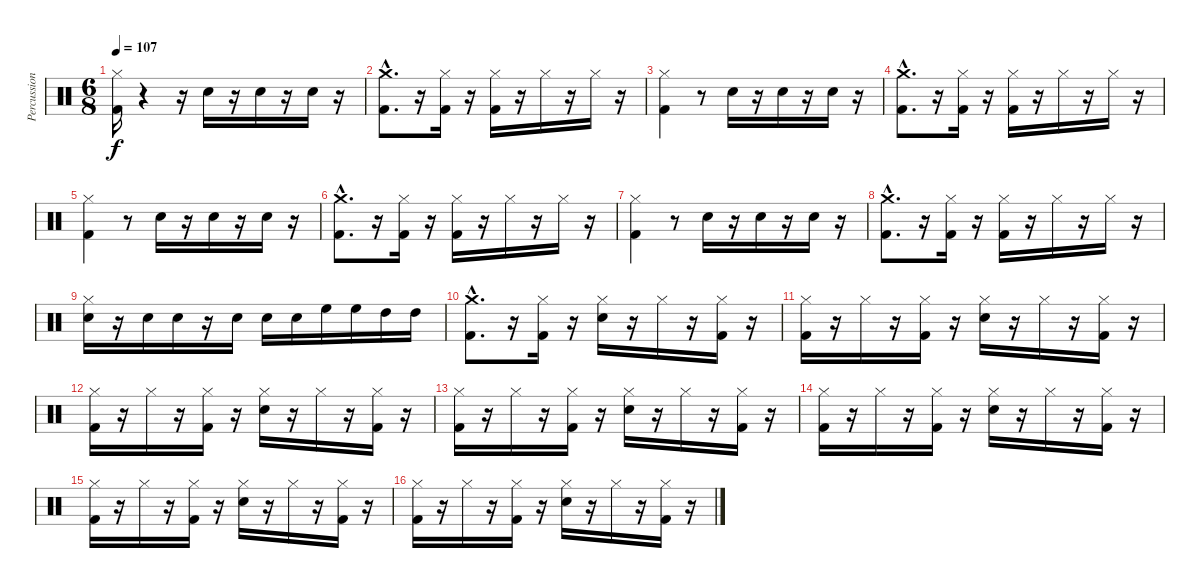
\track ("Percussions" "Percussion") {instrument percussion}
\staff {score}
\articulation defaults
\ts (6 8)
\tempo 107
\clef neutral
\ks c
("Kick (hit) 2" "Hi-Hat (closed)").16{dy f} r.4 r.16 "Snare (hit) 2".16 r.16 "Snare (hit) 2".16 r.16 "Snare (hit) 2".16 r.16 |
("Kick (hit) 2"{hac} "Crash medium (hit)"{hac}).8{d} r.16 ("Kick (hit) 2" "Hi-Hat (closed)").16 r.16 ("Kick (hit) 2" "Hi-Hat (closed)").16 r.16 "Hi-Hat (closed)".16 r.16 "Hi-Hat (closed)".16 r.16 |
("Kick (hit) 2" "Hi-Hat (closed)").4 r.8 "Snare (hit) 2".16 r.16 "Snare (hit) 2".16 r.16 "Snare (hit) 2".16 r.16 |
("Kick (hit) 2"{hac} "Crash medium (hit)"{hac}).8{d} r.16 ("Kick (hit) 2" "Hi-Hat (closed)").16 r.16 ("Kick (hit) 2" "Hi-Hat (closed)").16 r.16 "Hi-Hat (closed)".16 r.16 "Hi-Hat (closed)".16 r.16 |
("Kick (hit) 2" "Hi-Hat (closed)").4 r.8 "Snare (hit) 2".16 r.16 "Snare (hit) 2".16 r.16 "Snare (hit) 2".16 r.16 |
("Kick (hit) 2"{hac} "Crash medium (hit)"{hac}).8{d} r.16 ("Kick (hit) 2" "Hi-Hat (closed)").16 r.16 ("Kick (hit) 2" "Hi-Hat (closed)").16 r.16 "Hi-Hat (closed)".16 r.16 "Hi-Hat (closed)".16 r.16 |
("Kick (hit) 2" "Hi-Hat (closed)").4 r.8 "Snare (hit) 2".16 r.16 "Snare (hit) 2".16 r.16 "Snare (hit) 2".16 r.16 |
("Kick (hit) 2"{hac} "Crash medium (hit)"{hac}).8{d} r.16 ("Kick (hit) 2" "Hi-Hat (closed)").16 r.16 ("Kick (hit) 2" "Hi-Hat (closed)").16 r.16 "Hi-Hat (closed)".16 r.16 "Hi-Hat (closed)".16 r.16 |
("Snare (hit) 2" "Hi-Hat (closed)").16 r.16 "Snare (hit) 2".16 "Snare (hit) 2".16 r.16 "Snare (hit) 2".16 "Snare (hit) 2".16 "Snare (hit) 2".16 "High Floor Tom (hit)".16 "High Floor Tom (hit)".16 "High Tom (hit)".16 "High Tom (hit)".16 |
("Kick (hit) 2"{hac} "Crash medium (hit)"{hac}).8{d} r.16 ("Kick (hit) 2" "Hi-Hat (closed)").16 r.16 ("Snare (hit) 2" "Hi-Hat (closed)").16 r.16 "Hi-Hat (closed)".16 r.16 ("Kick (hit) 2" "Hi-Hat (closed)").16 r.16 |
("Kick (hit) 2" "Hi-Hat (closed)").16 r.16 "Hi-Hat (closed)".16 r.16 ("Kick (hit) 2" "Hi-Hat (closed)").16 r.16 ("Snare (hit) 2" "Hi-Hat (closed)").16 r.16 "Hi-Hat (closed)".16 r.16 ("Kick (hit) 2" "Hi-Hat (closed)").16 r.16 |
("Kick (hit) 2" "Hi-Hat (closed)").16 r.16 "Hi-Hat (closed)".16 r.16 ("Kick (hit) 2" "Hi-Hat (closed)").16 r.16 ("Snare (hit) 2" "Hi-Hat (closed)").16 r.16 "Hi-Hat (closed)".16 r.16 ("Kick (hit) 2" "Hi-Hat (closed)").16 r.16 |
("Kick (hit) 2" "Hi-Hat (closed)").16 r.16 "Hi-Hat (closed)".16 r.16 ("Kick (hit) 2" "Hi-Hat (closed)").16 r.16 ("Snare (hit) 2" "Hi-Hat (closed)").16 r.16 "Hi-Hat (closed)".16 r.16 ("Kick (hit) 2" "Hi-Hat (closed)").16 r.16 |
("Kick (hit) 2" "Hi-Hat (closed)").16 r.16 "Hi-Hat (closed)".16 r.16 ("Kick (hit) 2" "Hi-Hat (closed)").16 r.16 ("Snare (hit) 2" "Hi-Hat (closed)").16 r.16 "Hi-Hat (closed)".16 r.16 ("Kick (hit) 2" "Hi-Hat (closed)").16 r.16 |
("Kick (hit) 2" "Hi-Hat (closed)").16 r.16 "Hi-Hat (closed)".16 r.16 ("Kick (hit) 2" "Hi-Hat (closed)").16 r.16 ("Snare (hit) 2" "Hi-Hat (closed)").16 r.16 "Hi-Hat (closed)".16 r.16 ("Kick (hit) 2" "Hi-Hat (closed)").16 r.16 |
("Kick (hit) 2" "Hi-Hat (closed)").16 r.16 "Hi-Hat (closed)".16 r.16 ("Kick (hit) 2" "Hi-Hat (closed)").16 r.16 ("Snare (hit) 2" "Hi-Hat (closed)").16 r.16 "Hi-Hat (closed)".16 r.16 ("Kick (hit) 2" "Hi-Hat (closed)").16 r.16
